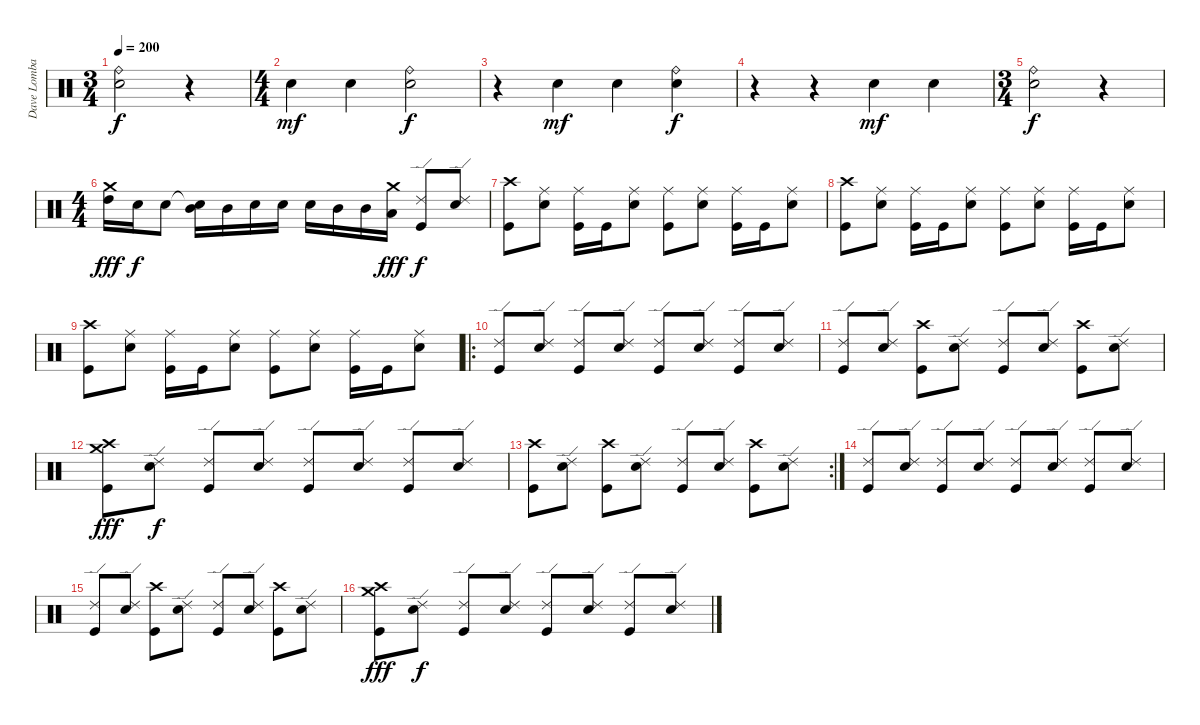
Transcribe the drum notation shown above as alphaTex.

\track ("Dave Lombardo:" "Dave Lomba") {instrument percussion}
\staff {score}
\articulation defaults
\ts (3 4)
\tempo 200
\clef neutral
\ks c
("Ride (bell)" "Electric Snare (hit)").2{dy f} r.4 |
\ts (4 4)
"Snare (hit) 2".4{dy mf} "Snare (hit) 2".4 ("Ride (bell)" "Electric Snare (hit)").2{dy f} |
r.4 "Snare (hit) 2".4{dy mf} "Snare (hit) 2".4 ("Ride (bell)" "Electric Snare (hit)").4{dy f} |
r.4 r.4 "Snare (hit) 2".4{dy mf} "Snare (hit) 2".4 |
\ts (3 4)
("Ride (bell)" "Electric Snare (hit)").2{dy f} r.4 |
\ts (4 4)
("Crash medium (hit)" "High Tom (hit)").16{dy fff} "Snare (hit) 2".16{dy f} "Snare (hit) 2".8 ("Snare (hit)"{t} "Mid Tom (hit)").16 "Mid Tom (hit)".16 "Snare (hit) 2".16 "Snare (hit) 2".16 "Snare (hit) 2".16 "Mid Tom (hit)".16 "Mid Tom (hit)".16 ("Crash medium (hit)" "Low Tom (hit)").16{dy fff} ("Ride (edge) 2" "Kick (hit)").8{dy f} ("Ride (edge) 2" "Snare (hit) 2").8 |
("Crash high (hit)" "Kick (hit)").8 ("Ride (middle)" "Snare (hit) 2").8 ("Ride (middle)" "Kick (hit)").16 "Kick (hit)".16 ("Ride (middle)" "Snare (hit) 2").8 ("Ride (middle)" "Kick (hit)").8 ("Ride (middle)" "Snare (hit) 2").8 ("Ride (middle)" "Kick (hit)").16 "Kick (hit)".16 ("Ride (middle)" "Snare (hit) 2").8 |
("Crash high (hit)" "Kick (hit)").8 ("Ride (middle)" "Snare (hit) 2").8 ("Ride (middle)" "Kick (hit)").16 "Kick (hit)".16 ("Ride (middle)" "Snare (hit) 2").8 ("Ride (middle)" "Kick (hit)").8 ("Ride (middle)" "Snare (hit) 2").8 ("Ride (middle)" "Kick (hit)").16 "Kick (hit)".16 ("Ride (middle)" "Snare (hit) 2").8 |
("Crash high (hit)" "Kick (hit)").8 ("Ride (middle)" "Snare (hit) 2").8 ("Ride (middle)" "Kick (hit)").16 "Kick (hit)".16 ("Ride (middle)" "Snare (hit) 2").8 ("Ride (middle)" "Kick (hit)").8 ("Ride (middle)" "Snare (hit) 2").8 ("Ride (middle)" "Kick (hit)").16 "Kick (hit)".16 ("Ride (middle)" "Snare (hit) 2").8 |
\ro
("Ride (edge) 2" "Kick (hit)").8 ("Ride (edge) 2" "Snare (hit) 2").8 ("Ride (edge) 2" "Kick (hit)").8 ("Ride (edge) 2" "Snare (hit) 2").8 ("Ride (edge) 2" "Kick (hit)").8 ("Ride (edge) 2" "Snare (hit) 2").8 ("Ride (edge) 2" "Kick (hit)").8 ("Ride (edge) 2" "Snare (hit) 2").8 |
("Ride (edge) 2" "Kick (hit)").8 ("Ride (edge) 2" "Snare (hit) 2").8 ("Crash high (hit)" "Kick (hit)").8 ("Ride (edge) 2" "Snare (hit) 2").8 ("Ride (edge) 2" "Kick (hit)").8 ("Ride (edge) 2" "Snare (hit) 2").8 ("Crash high (hit)" "Kick (hit)").8 ("Ride (edge) 2" "Snare (hit) 2").8 |
("Crash medium (hit)" "Crash high (hit)" "Kick (hit)").8{dy fff} ("Ride (edge) 2" "Snare (hit) 2").8{dy f} ("Ride (edge) 2" "Kick (hit)").8 ("Ride (edge) 2" "Snare (hit) 2").8 ("Ride (edge) 2" "Kick (hit)").8 ("Ride (edge) 2" "Snare (hit) 2").8 ("Ride (edge) 2" "Kick (hit)").8 ("Ride (edge) 2" "Snare (hit) 2").8 |
\rc 2
("Crash high (hit)" "Kick (hit)").8 ("Ride (edge) 2" "Snare (hit) 2").8 ("Crash high (hit)" "Kick (hit)").8 ("Ride (edge) 2" "Snare (hit) 2").8 ("Ride (edge) 2" "Kick (hit)").8 ("Ride (edge) 2" "Snare (hit) 2").8 ("Crash high (hit)" "Kick (hit)").8 ("Ride (edge) 2" "Snare (hit) 2").8 |
("Ride (edge) 2" "Kick (hit)").8 ("Ride (edge) 2" "Snare (hit) 2").8 ("Ride (edge) 2" "Kick (hit)").8 ("Ride (edge) 2" "Snare (hit) 2").8 ("Ride (edge) 2" "Kick (hit)").8 ("Ride (edge) 2" "Snare (hit) 2").8 ("Ride (edge) 2" "Kick (hit)").8 ("Ride (edge) 2" "Snare (hit) 2").8 |
("Ride (edge) 2" "Kick (hit)").8 ("Ride (edge) 2" "Snare (hit) 2").8 ("Crash high (hit)" "Kick (hit)").8 ("Ride (edge) 2" "Snare (hit) 2").8 ("Ride (edge) 2" "Kick (hit)").8 ("Ride (edge) 2" "Snare (hit) 2").8 ("Crash high (hit)" "Kick (hit)").8 ("Ride (edge) 2" "Snare (hit) 2").8 |
("Crash medium (hit)" "Crash high (hit)" "Kick (hit)").8{dy fff} ("Ride (edge) 2" "Snare (hit) 2").8{dy f} ("Ride (edge) 2" "Kick (hit)").8 ("Ride (edge) 2" "Snare (hit) 2").8 ("Ride (edge) 2" "Kick (hit)").8 ("Ride (edge) 2" "Snare (hit) 2").8 ("Ride (edge) 2" "Kick (hit)").8 ("Ride (edge) 2" "Snare (hit) 2").8
